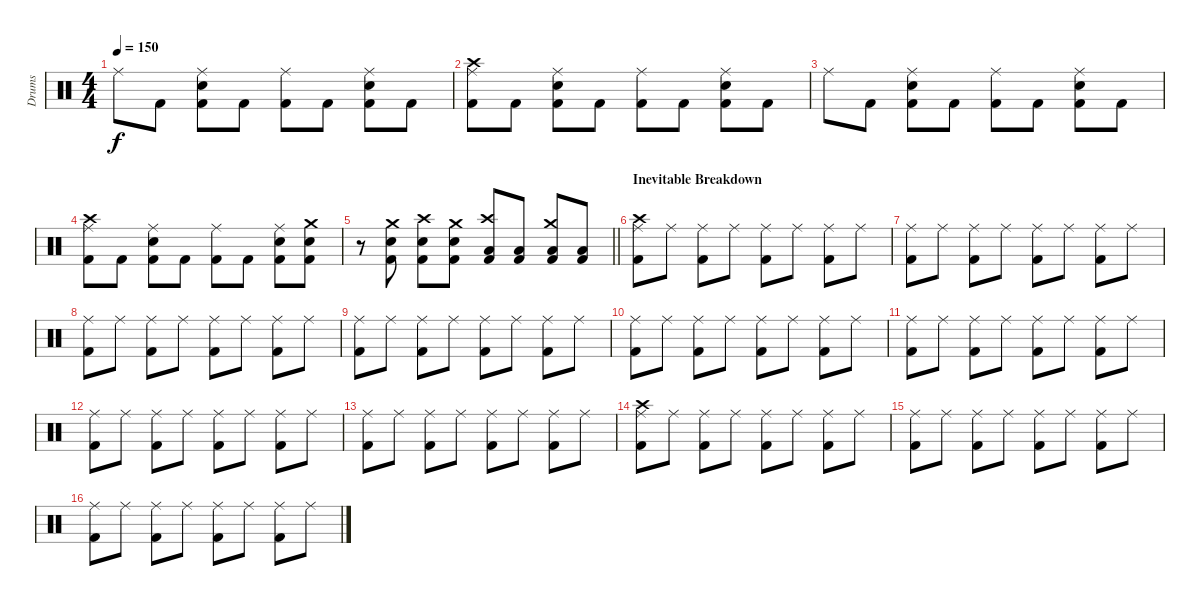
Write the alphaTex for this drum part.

\track ("Drums" "Drums") {instrument percussion}
\staff {score}
\articulation defaults
\ts (4 4)
\tempo 150
\clef neutral
\ks c "Ride (middle)".8{dy f} "Kick (hit) 2".8
("Ride (middle)" "Snare (hit) 2" "Kick (hit) 2").8 "Kick (hit) 2".8 ("Ride (middle)" "Kick (hit) 2").8 "Kick (hit) 2".8 ("Ride (middle)" "Snare (hit) 2" "Kick (hit) 2").8 "Kick (hit) 2".8 |
("Crash high (hit)" "Ride (middle)" "Kick (hit) 2").8 "Kick (hit) 2".8 ("Ride (middle)" "Snare (hit) 2" "Kick (hit) 2").8 "Kick (hit) 2".8 ("Ride (middle)" "Kick (hit) 2").8 "Kick (hit) 2".8 ("Ride (middle)" "Snare (hit) 2" "Kick (hit) 2").8 "Kick (hit) 2".8 |
"Ride (middle)".8 "Kick (hit) 2".8 ("Ride (middle)" "Snare (hit) 2" "Kick (hit) 2").8 "Kick (hit) 2".8 ("Ride (middle)" "Kick (hit) 2").8 "Kick (hit) 2".8 ("Ride (middle)" "Snare (hit) 2" "Kick (hit) 2").8 "Kick (hit) 2".8 |
("Crash high (hit)" "Ride (middle)" "Kick (hit) 2").8 "Kick (hit) 2".8 ("Ride (middle)" "Snare (hit) 2" "Kick (hit) 2").8 "Kick (hit) 2".8 ("Ride (middle)" "Kick (hit) 2").8 "Kick (hit) 2".8 ("Ride (middle)" "Snare (hit) 2" "Kick (hit) 2").8 ("Crash medium (hit)" "Snare (hit) 2" "Kick (hit) 2").8 |
\barLineRight lightlight
r.8 ("Crash medium (hit)" "Snare (hit) 2" "Kick (hit) 2").8 ("Crash high (hit)" "Snare (hit) 2" "Kick (hit) 2").8 ("Crash medium (hit)" "Snare (hit) 2" "Kick (hit) 2").8 ("Crash high (hit)" "Low Floor Tom (hit)" "Kick (hit) 2").8 ("Low Floor Tom (hit)" "Kick (hit) 2").8 ("Crash medium (hit)" "Low Floor Tom (hit)" "Kick (hit) 2").8 ("Low Floor Tom (hit)" "Kick (hit) 2").8 |
\section ("" "Inevitable Breakdown")
("Crash high (hit)" "Ride (middle)" "Kick (hit) 2").8 "Ride (middle)".8 ("Ride (middle)" "Kick (hit) 2").8 "Ride (middle)".8 ("Ride (middle)" "Kick (hit) 2").8 "Ride (middle)".8 ("Ride (middle)" "Kick (hit) 2").8 "Ride (middle)".8 |
("Ride (middle)" "Kick (hit) 2").8 "Ride (middle)".8 ("Ride (middle)" "Kick (hit) 2").8 "Ride (middle)".8 ("Ride (middle)" "Kick (hit) 2").8 "Ride (middle)".8 ("Ride (middle)" "Kick (hit) 2").8 "Ride (middle)".8 |
("Ride (middle)" "Kick (hit) 2").8 "Ride (middle)".8 ("Ride (middle)" "Kick (hit) 2").8 "Ride (middle)".8 ("Ride (middle)" "Kick (hit) 2").8 "Ride (middle)".8 ("Ride (middle)" "Kick (hit) 2").8 "Ride (middle)".8 |
("Ride (middle)" "Kick (hit) 2").8 "Ride (middle)".8 ("Ride (middle)" "Kick (hit) 2").8 "Ride (middle)".8 ("Ride (middle)" "Kick (hit) 2").8 "Ride (middle)".8 ("Ride (middle)" "Kick (hit) 2").8 "Ride (middle)".8 |
("Ride (middle)" "Kick (hit) 2").8 "Ride (middle)".8 ("Ride (middle)" "Kick (hit) 2").8 "Ride (middle)".8 ("Ride (middle)" "Kick (hit) 2").8 "Ride (middle)".8 ("Ride (middle)" "Kick (hit) 2").8 "Ride (middle)".8 |
("Ride (middle)" "Kick (hit) 2").8 "Ride (middle)".8 ("Ride (middle)" "Kick (hit) 2").8 "Ride (middle)".8 ("Ride (middle)" "Kick (hit) 2").8 "Ride (middle)".8 ("Ride (middle)" "Kick (hit) 2").8 "Ride (middle)".8 |
("Ride (middle)" "Kick (hit) 2").8 "Ride (middle)".8 ("Ride (middle)" "Kick (hit) 2").8 "Ride (middle)".8 ("Ride (middle)" "Kick (hit) 2").8 "Ride (middle)".8 ("Ride (middle)" "Kick (hit) 2").8 "Ride (middle)".8 |
("Ride (middle)" "Kick (hit) 2").8 "Ride (middle)".8 ("Ride (middle)" "Kick (hit) 2").8 "Ride (middle)".8 ("Ride (middle)" "Kick (hit) 2").8 "Ride (middle)".8 ("Ride (middle)" "Kick (hit) 2").8 "Ride (middle)".8 |
("Crash high (hit)" "Ride (middle)" "Kick (hit) 2").8 "Ride (middle)".8 ("Ride (middle)" "Kick (hit) 2").8 "Ride (middle)".8 ("Ride (middle)" "Kick (hit) 2").8 "Ride (middle)".8 ("Ride (middle)" "Kick (hit) 2").8 "Ride (middle)".8 |
("Ride (middle)" "Kick (hit) 2").8 "Ride (middle)".8 ("Ride (middle)" "Kick (hit) 2").8 "Ride (middle)".8 ("Ride (middle)" "Kick (hit) 2").8 "Ride (middle)".8 ("Ride (middle)" "Kick (hit) 2").8 "Ride (middle)".8 |
("Ride (middle)" "Kick (hit) 2").8 "Ride (middle)".8 ("Ride (middle)" "Kick (hit) 2").8 "Ride (middle)".8 ("Ride (middle)" "Kick (hit) 2").8 "Ride (middle)".8 ("Ride (middle)" "Kick (hit) 2").8 "Ride (middle)".8
